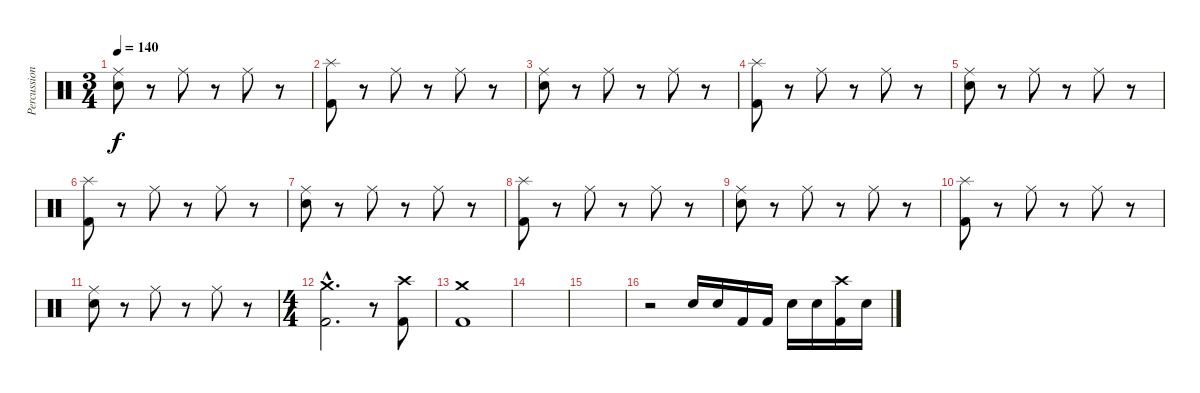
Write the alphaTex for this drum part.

\track ("Percussion" "Percussion") {instrument percussion}
\staff {score}
\articulation defaults
\ts (3 4)
\tempo 140
\clef neutral
\ks c
("Ride (middle)" "Electric Snare (hit)").8{dy f} r.8 "Ride (middle)".8 r.8 "Ride (middle)".8 r.8 |
("Splash (hit)" "Kick (hit) 2").8 r.8 "Ride (middle)".8 r.8 "Ride (middle)".8 r.8 |
("Ride (middle)" "Electric Snare (hit)").8 r.8 "Ride (middle)".8 r.8 "Ride (middle)".8 r.8 |
("Splash (hit)" "Kick (hit) 2").8 r.8 "Ride (middle)".8 r.8 "Ride (middle)".8 r.8 |
("Ride (middle)" "Electric Snare (hit)").8 r.8 "Ride (middle)".8 r.8 "Ride (middle)".8 r.8 |
("Splash (hit)" "Kick (hit) 2").8 r.8 "Ride (middle)".8 r.8 "Ride (middle)".8 r.8 |
("Ride (middle)" "Electric Snare (hit)").8 r.8 "Ride (middle)".8 r.8 "Ride (middle)".8 r.8 |
("Splash (hit)" "Kick (hit) 2").8 r.8 "Ride (middle)".8 r.8 "Ride (middle)".8 r.8 |
("Ride (middle)" "Electric Snare (hit)").8 r.8 "Ride (middle)".8 r.8 "Ride (middle)".8 r.8 |
("Splash (hit)" "Kick (hit) 2").8 r.8 "Ride (middle)".8 r.8 "Ride (middle)".8 r.8 |
("Ride (middle)" "Electric Snare (hit)").8 r.8 "Ride (middle)".8 r.8 "Ride (middle)".8 r.8 |
\ts (4 4)
("Crash medium (hit)"{hac} "Kick (hit) 2"{hac}).2{d} r.8 ("Crash high (hit)" "Kick (hit) 2").8 |
("Crash medium (hit)" "Kick (hit) 2").1 |
|
|
r.2 "Electric Snare (hit)".16 "Electric Snare (hit)".16 "Kick (hit) 2".16 "Kick (hit) 2".16 "Electric Snare (hit)".16 "Electric Snare (hit)".16 ("Crash high (hit)" "Kick (hit) 2").16 "Electric Snare (hit)".16
